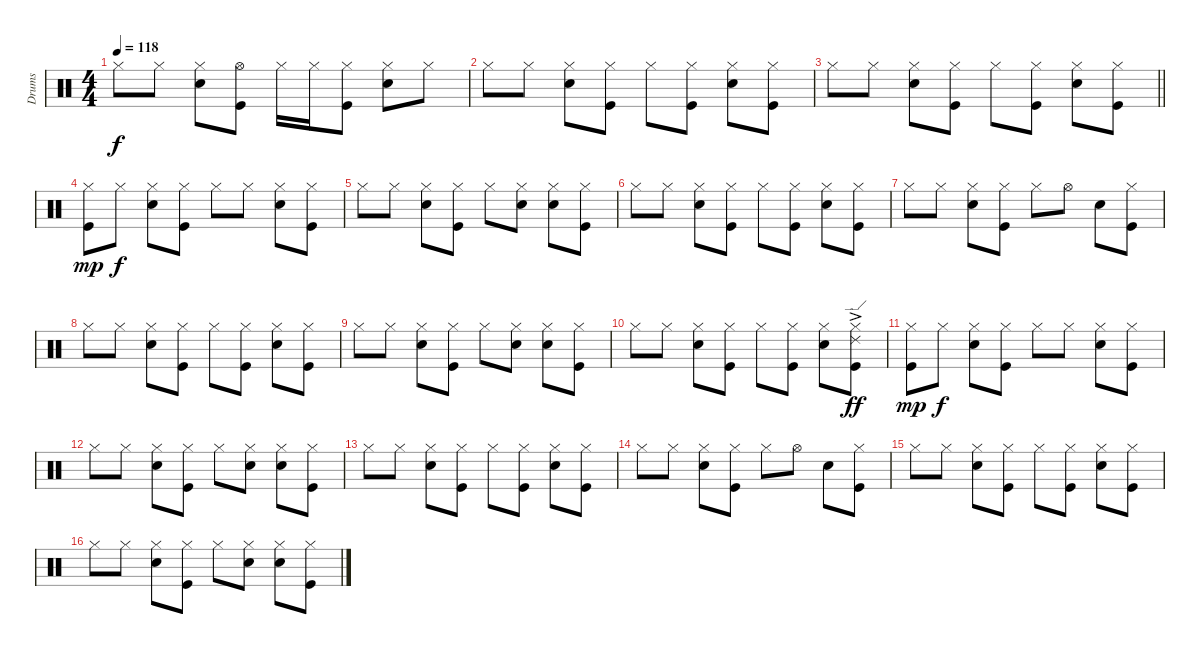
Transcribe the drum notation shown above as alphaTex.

\track ("Drums" "Drums") {instrument percussion}
\staff {score}
\articulation defaults
\ts (4 4)
\tempo 118
\clef neutral
\ks c "Hi-Hat (closed)".8{dy f} "Hi-Hat (closed)".8
("Hi-Hat (closed)" "Snare (hit) 2").8 ("Hi-Hat (open)" "Kick (hit)").8 "Hi-Hat (closed)".16 "Hi-Hat (closed)".16 ("Hi-Hat (closed)" "Kick (hit)").8 ("Hi-Hat (closed)" "Snare (hit) 2").8 "Hi-Hat (closed)".8 |
"Hi-Hat (closed)".8 "Hi-Hat (closed)".8 ("Hi-Hat (closed)" "Snare (hit) 2").8 ("Hi-Hat (closed)" "Kick (hit)").8 "Hi-Hat (closed)".8 ("Hi-Hat (closed)" "Kick (hit)").8 ("Hi-Hat (closed)" "Snare (hit) 2").8 ("Hi-Hat (closed)" "Kick (hit)").8 |
\barLineRight lightlight "Hi-Hat (closed)".8 "Hi-Hat (closed)".8
("Hi-Hat (closed)" "Snare (hit) 2").8 ("Hi-Hat (closed)" "Kick (hit)").8 "Hi-Hat (closed)".8 ("Hi-Hat (closed)" "Kick (hit)").8 ("Hi-Hat (closed)" "Snare (hit) 2").8 ("Hi-Hat (closed)" "Kick (hit)").8 |
("Hi-Hat (closed)" "Kick (hit)").8{dy mp} "Hi-Hat (closed)".8{dy f} ("Hi-Hat (closed)" "Snare (hit) 2").8 ("Hi-Hat (closed)" "Kick (hit)").8 "Hi-Hat (closed)".8 "Hi-Hat (closed)".8 ("Hi-Hat (closed)" "Snare (hit) 2").8 ("Hi-Hat (closed)" "Kick (hit)").8 |
"Hi-Hat (closed)".8 "Hi-Hat (closed)".8 ("Hi-Hat (closed)" "Snare (hit) 2").8 ("Hi-Hat (closed)" "Kick (hit)").8 "Hi-Hat (closed)".8 ("Hi-Hat (closed)" "Snare (hit) 2").8 ("Hi-Hat (closed)" "Snare (hit) 2").8 ("Hi-Hat (closed)" "Kick (hit)").8 |
"Hi-Hat (closed)".8 "Hi-Hat (closed)".8 ("Hi-Hat (closed)" "Snare (hit) 2").8 ("Hi-Hat (closed)" "Kick (hit)").8 "Hi-Hat (closed)".8 ("Hi-Hat (closed)" "Kick (hit)").8 ("Hi-Hat (closed)" "Snare (hit) 2").8 ("Hi-Hat (closed)" "Kick (hit)").8 |
"Hi-Hat (closed)".8 "Hi-Hat (closed)".8 ("Hi-Hat (closed)" "Snare (hit) 2").8 ("Hi-Hat (closed)" "Kick (hit)").8 "Hi-Hat (closed)".8 "Hi-Hat (open)".8 "Snare (hit) 2".8 ("Hi-Hat (closed)" "Kick (hit)").8 |
"Hi-Hat (closed)".8 "Hi-Hat (closed)".8 ("Hi-Hat (closed)" "Snare (hit) 2").8 ("Hi-Hat (closed)" "Kick (hit)").8 "Hi-Hat (closed)".8 ("Hi-Hat (closed)" "Kick (hit)").8 ("Hi-Hat (closed)" "Snare (hit) 2").8 ("Hi-Hat (closed)" "Kick (hit)").8 |
"Hi-Hat (closed)".8 "Hi-Hat (closed)".8 ("Hi-Hat (closed)" "Snare (hit) 2").8 ("Hi-Hat (closed)" "Kick (hit)").8 "Hi-Hat (closed)".8 ("Hi-Hat (closed)" "Snare (hit) 2").8 ("Hi-Hat (closed)" "Snare (hit) 2").8 ("Hi-Hat (closed)" "Kick (hit)").8 |
"Hi-Hat (closed)".8 "Hi-Hat (closed)".8 ("Hi-Hat (closed)" "Snare (hit) 2").8 ("Hi-Hat (closed)" "Kick (hit)").8 "Hi-Hat (closed)".8 ("Hi-Hat (closed)" "Kick (hit)").8 ("Hi-Hat (closed)" "Snare (hit) 2").8 ("Hi-Hat (closed)" "Ride (edge) 2"{ac} "Kick (hit)").8{dy ff} |
("Hi-Hat (closed)" "Kick (hit)").8{dy mp} "Hi-Hat (closed)".8{dy f} ("Hi-Hat (closed)" "Snare (hit) 2").8 ("Hi-Hat (closed)" "Kick (hit)").8 "Hi-Hat (closed)".8 "Hi-Hat (closed)".8 ("Hi-Hat (closed)" "Snare (hit) 2").8 ("Hi-Hat (closed)" "Kick (hit)").8 |
"Hi-Hat (closed)".8 "Hi-Hat (closed)".8 ("Hi-Hat (closed)" "Snare (hit) 2").8 ("Hi-Hat (closed)" "Kick (hit)").8 "Hi-Hat (closed)".8 ("Hi-Hat (closed)" "Snare (hit) 2").8 ("Hi-Hat (closed)" "Snare (hit) 2").8 ("Hi-Hat (closed)" "Kick (hit)").8 |
"Hi-Hat (closed)".8 "Hi-Hat (closed)".8 ("Hi-Hat (closed)" "Snare (hit) 2").8 ("Hi-Hat (closed)" "Kick (hit)").8 "Hi-Hat (closed)".8 ("Hi-Hat (closed)" "Kick (hit)").8 ("Hi-Hat (closed)" "Snare (hit) 2").8 ("Hi-Hat (closed)" "Kick (hit)").8 |
"Hi-Hat (closed)".8 "Hi-Hat (closed)".8 ("Hi-Hat (closed)" "Snare (hit) 2").8 ("Hi-Hat (closed)" "Kick (hit)").8 "Hi-Hat (closed)".8 "Hi-Hat (open)".8 "Snare (hit) 2".8 ("Hi-Hat (closed)" "Kick (hit)").8 |
"Hi-Hat (closed)".8 "Hi-Hat (closed)".8 ("Hi-Hat (closed)" "Snare (hit) 2").8 ("Hi-Hat (closed)" "Kick (hit)").8 "Hi-Hat (closed)".8 ("Hi-Hat (closed)" "Kick (hit)").8 ("Hi-Hat (closed)" "Snare (hit) 2").8 ("Hi-Hat (closed)" "Kick (hit)").8 |
"Hi-Hat (closed)".8 "Hi-Hat (closed)".8 ("Hi-Hat (closed)" "Snare (hit) 2").8 ("Hi-Hat (closed)" "Kick (hit)").8 "Hi-Hat (closed)".8 ("Hi-Hat (closed)" "Snare (hit) 2").8 ("Hi-Hat (closed)" "Snare (hit) 2").8 ("Hi-Hat (closed)" "Kick (hit)").8
